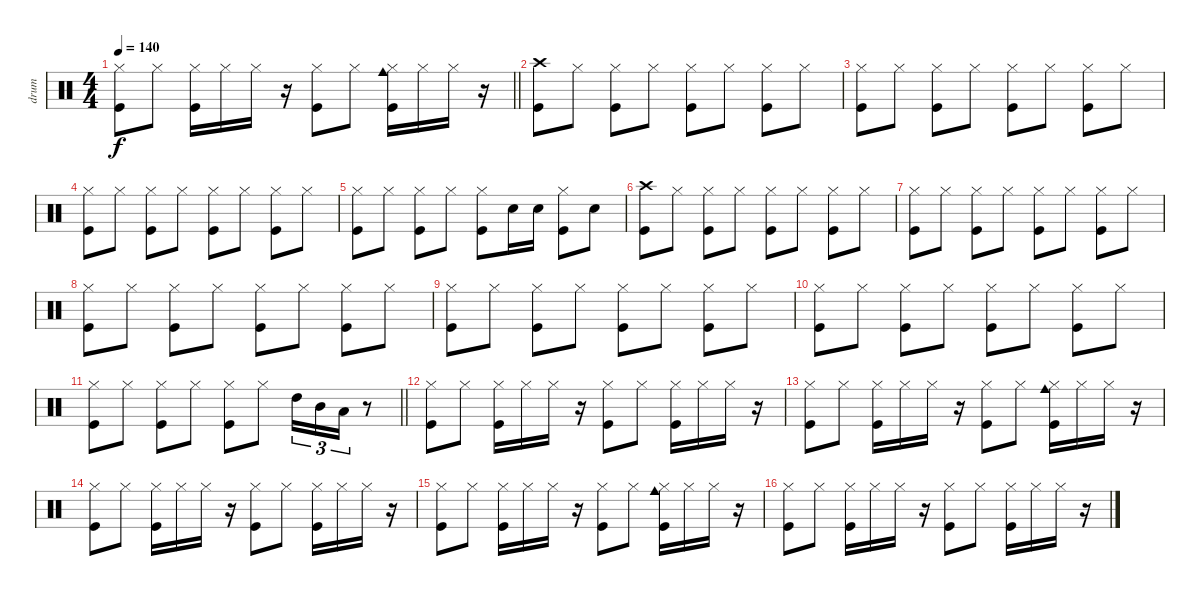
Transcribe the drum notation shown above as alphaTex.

\track ("drum" "drum") {instrument percussion}
\staff {score}
\articulation defaults
\ts (4 4)
\tempo 140
\clef neutral
\barLineRight lightlight
\ks c
("Hi-Hat (closed)" "Kick (hit)").8{dy f} "Hi-Hat (closed)".8 ("Hi-Hat (closed)" "Kick (hit)").16 "Hi-Hat (closed)".16 "Hi-Hat (closed)".16 r.16 ("Hi-Hat (closed)" "Kick (hit)").8 "Hi-Hat (closed)".8 ("Hi-Hat (closed)" "Cowbell medium (hit)" "Kick (hit)").16 "Hi-Hat (closed)".16 "Hi-Hat (closed)".16 r.16 |
("Crash high (hit)" "Kick (hit)").8 "Hi-Hat (closed)".8 ("Hi-Hat (closed)" "Kick (hit)").8 "Hi-Hat (closed)".8 ("Hi-Hat (closed)" "Kick (hit)").8 "Hi-Hat (closed)".8 ("Hi-Hat (closed)" "Kick (hit)").8 "Hi-Hat (closed)".8 |
("Hi-Hat (closed)" "Kick (hit)").8 "Hi-Hat (closed)".8 ("Hi-Hat (closed)" "Kick (hit)").8 "Hi-Hat (closed)".8 ("Hi-Hat (closed)" "Kick (hit)").8 "Hi-Hat (closed)".8 ("Hi-Hat (closed)" "Kick (hit)").8 "Hi-Hat (closed)".8 |
("Hi-Hat (closed)" "Kick (hit)").8 "Hi-Hat (closed)".8 ("Hi-Hat (closed)" "Kick (hit)").8 "Hi-Hat (closed)".8 ("Hi-Hat (closed)" "Kick (hit)").8 "Hi-Hat (closed)".8 ("Hi-Hat (closed)" "Kick (hit)").8 "Hi-Hat (closed)".8 |
("Hi-Hat (closed)" "Kick (hit)").8 "Hi-Hat (closed)".8 ("Hi-Hat (closed)" "Kick (hit)").8 "Hi-Hat (closed)".8 ("Hi-Hat (closed)" "Kick (hit)").8 "Snare (hit) 2".16 "Snare (hit) 2".16 ("Hi-Hat (closed)" "Kick (hit)").8 "Snare (hit) 2".8 |
("Crash high (hit)" "Kick (hit)").8 "Hi-Hat (closed)".8 ("Hi-Hat (closed)" "Kick (hit)").8 "Hi-Hat (closed)".8 ("Hi-Hat (closed)" "Kick (hit)").8 "Hi-Hat (closed)".8 ("Hi-Hat (closed)" "Kick (hit)").8 "Hi-Hat (closed)".8 |
("Hi-Hat (closed)" "Kick (hit)").8 "Hi-Hat (closed)".8 ("Hi-Hat (closed)" "Kick (hit)").8 "Hi-Hat (closed)".8 ("Hi-Hat (closed)" "Kick (hit)").8 "Hi-Hat (closed)".8 ("Hi-Hat (closed)" "Kick (hit)").8 "Hi-Hat (closed)".8 |
("Hi-Hat (closed)" "Kick (hit)").8 "Hi-Hat (closed)".8 ("Hi-Hat (closed)" "Kick (hit)").8 "Hi-Hat (closed)".8 ("Hi-Hat (closed)" "Kick (hit)").8 "Hi-Hat (closed)".8 ("Hi-Hat (closed)" "Kick (hit)").8 "Hi-Hat (closed)".8 |
("Hi-Hat (closed)" "Kick (hit)").8 "Hi-Hat (closed)".8 ("Hi-Hat (closed)" "Kick (hit)").8 "Hi-Hat (closed)".8 ("Hi-Hat (closed)" "Kick (hit)").8 "Hi-Hat (closed)".8 ("Hi-Hat (closed)" "Kick (hit)").8 "Hi-Hat (closed)".8 |
("Hi-Hat (closed)" "Kick (hit)").8 "Hi-Hat (closed)".8 ("Hi-Hat (closed)" "Kick (hit)").8 "Hi-Hat (closed)".8 ("Hi-Hat (closed)" "Kick (hit)").8 "Hi-Hat (closed)".8 ("Hi-Hat (closed)" "Kick (hit)").8 "Hi-Hat (closed)".8 |
\barLineRight lightlight
("Hi-Hat (closed)" "Kick (hit)").8 "Hi-Hat (closed)".8 ("Hi-Hat (closed)" "Kick (hit)").8 "Hi-Hat (closed)".8 ("Hi-Hat (closed)" "Kick (hit)").8 "Hi-Hat (closed)".8 "High Tom (hit)".16{tu (3 2)} "Mid Tom (hit)".16{tu (3 2)} "Low Tom (hit)".16{tu (3 2)} r.8 |
("Hi-Hat (closed)" "Kick (hit)").8 "Hi-Hat (closed)".8 ("Hi-Hat (closed)" "Kick (hit)").16 "Hi-Hat (closed)".16 "Hi-Hat (closed)".16 r.16 ("Hi-Hat (closed)" "Kick (hit)").8 "Hi-Hat (closed)".8 ("Hi-Hat (closed)" "Kick (hit)").16 "Hi-Hat (closed)".16 "Hi-Hat (closed)".16 r.16 |
("Hi-Hat (closed)" "Kick (hit)").8 "Hi-Hat (closed)".8 ("Hi-Hat (closed)" "Kick (hit)").16 "Hi-Hat (closed)".16 "Hi-Hat (closed)".16 r.16 ("Hi-Hat (closed)" "Kick (hit)").8 "Hi-Hat (closed)".8 ("Hi-Hat (closed)" "Cowbell medium (hit)" "Kick (hit)").16 "Hi-Hat (closed)".16 "Hi-Hat (closed)".16 r.16 |
("Hi-Hat (closed)" "Kick (hit)").8 "Hi-Hat (closed)".8 ("Hi-Hat (closed)" "Kick (hit)").16 "Hi-Hat (closed)".16 "Hi-Hat (closed)".16 r.16 ("Hi-Hat (closed)" "Kick (hit)").8 "Hi-Hat (closed)".8 ("Hi-Hat (closed)" "Kick (hit)").16 "Hi-Hat (closed)".16 "Hi-Hat (closed)".16 r.16 |
("Hi-Hat (closed)" "Kick (hit)").8 "Hi-Hat (closed)".8 ("Hi-Hat (closed)" "Kick (hit)").16 "Hi-Hat (closed)".16 "Hi-Hat (closed)".16 r.16 ("Hi-Hat (closed)" "Kick (hit)").8 "Hi-Hat (closed)".8 ("Hi-Hat (closed)" "Cowbell medium (hit)" "Kick (hit)").16 "Hi-Hat (closed)".16 "Hi-Hat (closed)".16 r.16 |
("Hi-Hat (closed)" "Kick (hit)").8 "Hi-Hat (closed)".8 ("Hi-Hat (closed)" "Kick (hit)").16 "Hi-Hat (closed)".16 "Hi-Hat (closed)".16 r.16 ("Hi-Hat (closed)" "Kick (hit)").8 "Hi-Hat (closed)".8 ("Hi-Hat (closed)" "Kick (hit)").16 "Hi-Hat (closed)".16 "Hi-Hat (closed)".16 r.16
